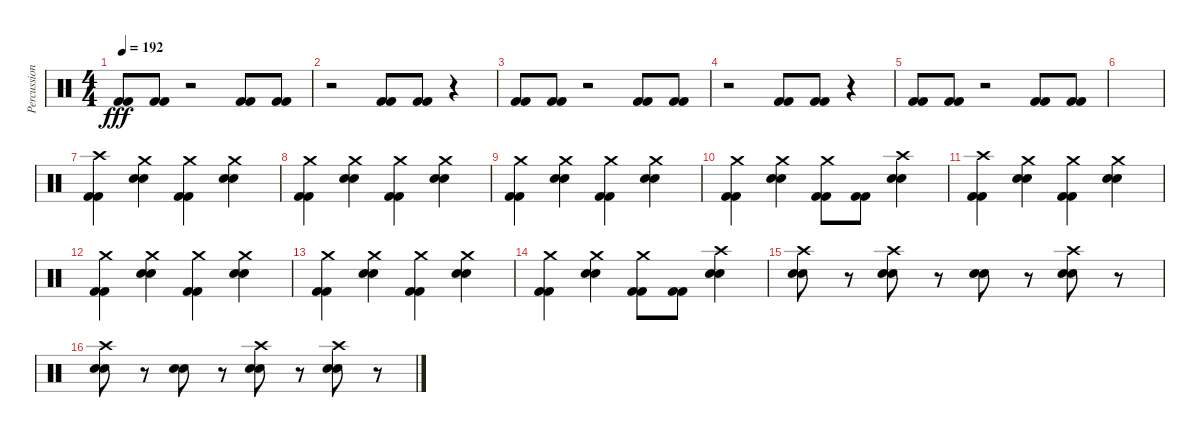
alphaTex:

\track ("Percussion" "Percussion") {instrument percussion}
\staff {score}
\articulation defaults
\ts (4 4)
\tempo 192
\clef neutral
\ks c
("Kick (hit) 2" "Kick (hit) 2").8{dy fff} ("Kick (hit) 2" "Kick (hit) 2").8 r.2 ("Kick (hit) 2" "Kick (hit) 2").8 ("Kick (hit) 2" "Kick (hit) 2").8 |
r.2 ("Kick (hit) 2" "Kick (hit) 2").8 ("Kick (hit) 2" "Kick (hit) 2").8 r.4 |
("Kick (hit) 2" "Kick (hit) 2").8 ("Kick (hit) 2" "Kick (hit) 2").8 r.2 ("Kick (hit) 2" "Kick (hit) 2").8 ("Kick (hit) 2" "Kick (hit) 2").8 |
r.2 ("Kick (hit) 2" "Kick (hit) 2").8 ("Kick (hit) 2" "Kick (hit) 2").8 r.4 |
("Kick (hit) 2" "Kick (hit) 2").8 ("Kick (hit) 2" "Kick (hit) 2").8 r.2 ("Kick (hit) 2" "Kick (hit) 2").8 ("Kick (hit) 2" "Kick (hit) 2").8 |
|
("Crash high (hit)" "Kick (hit) 2" "Kick (hit) 2").4 ("Crash medium (hit)" "Snare (hit) 2" "Electric Snare (hit)").4 ("Crash medium (hit)" "Kick (hit) 2" "Kick (hit) 2").4 ("Crash medium (hit)" "Snare (hit) 2" "Electric Snare (hit)").4 |
("Crash medium (hit)" "Kick (hit) 2" "Kick (hit) 2").4 ("Crash medium (hit)" "Snare (hit) 2" "Electric Snare (hit)").4 ("Crash medium (hit)" "Kick (hit) 2" "Kick (hit) 2").4 ("Crash medium (hit)" "Snare (hit) 2" "Electric Snare (hit)").4 |
("Crash medium (hit)" "Kick (hit) 2" "Kick (hit) 2").4 ("Crash medium (hit)" "Snare (hit) 2" "Electric Snare (hit)").4 ("Crash medium (hit)" "Kick (hit) 2" "Kick (hit) 2").4 ("Crash medium (hit)" "Snare (hit) 2" "Electric Snare (hit)").4 |
("Crash medium (hit)" "Kick (hit) 2" "Kick (hit) 2").4 ("Crash medium (hit)" "Snare (hit) 2" "Electric Snare (hit)").4 ("Crash medium (hit)" "Kick (hit) 2" "Kick (hit) 2").8 ("Kick (hit) 2" "Kick (hit) 2").8 ("Crash high (hit)" "Snare (hit) 2" "Electric Snare (hit)").4 |
("Crash high (hit)" "Kick (hit) 2" "Kick (hit) 2").4 ("Crash medium (hit)" "Snare (hit) 2" "Electric Snare (hit)").4 ("Crash medium (hit)" "Kick (hit) 2" "Kick (hit) 2").4 ("Crash medium (hit)" "Snare (hit) 2" "Electric Snare (hit)").4 |
("Crash medium (hit)" "Kick (hit) 2" "Kick (hit) 2").4 ("Crash medium (hit)" "Snare (hit) 2" "Electric Snare (hit)").4 ("Crash medium (hit)" "Kick (hit) 2" "Kick (hit) 2").4 ("Crash medium (hit)" "Snare (hit) 2" "Electric Snare (hit)").4 |
("Crash medium (hit)" "Kick (hit) 2" "Kick (hit) 2").4 ("Crash medium (hit)" "Snare (hit) 2" "Electric Snare (hit)").4 ("Crash medium (hit)" "Kick (hit) 2" "Kick (hit) 2").4 ("Crash medium (hit)" "Snare (hit) 2" "Electric Snare (hit)").4 |
("Crash medium (hit)" "Kick (hit) 2" "Kick (hit) 2").4 ("Crash medium (hit)" "Snare (hit) 2" "Electric Snare (hit)").4 ("Crash medium (hit)" "Kick (hit) 2" "Kick (hit) 2").8 ("Kick (hit) 2" "Kick (hit) 2").8 ("Crash high (hit)" "Snare (hit) 2" "Electric Snare (hit)").4 |
("Crash high (hit)" "Snare (hit) 2" "Electric Snare (hit)").8 r.8 ("Crash high (hit)" "Snare (hit) 2" "Electric Snare (hit)").8 r.8 ("Snare (hit) 2" "Electric Snare (hit)").8 r.8 ("Crash high (hit)" "Snare (hit) 2" "Electric Snare (hit)").8 r.8 |
("Crash high (hit)" "Snare (hit) 2" "Electric Snare (hit)").8 r.8 ("Snare (hit) 2" "Electric Snare (hit)").8 r.8 ("Crash high (hit)" "Snare (hit) 2" "Electric Snare (hit)").8 r.8 ("Crash high (hit)" "Snare (hit) 2" "Electric Snare (hit)").8 r.8
